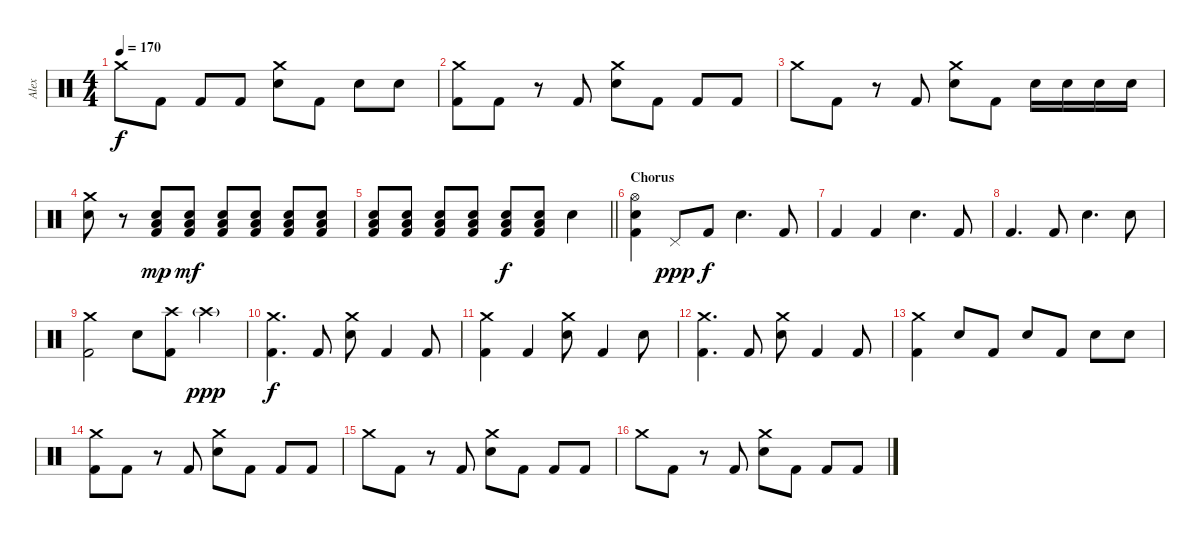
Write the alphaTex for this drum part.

\track ("Alex" "Alex") {instrument percussion}
\staff {score}
\articulation defaults
\ts (4 4)
\tempo 170
\clef neutral
\ks c "Crash medium (hit)".8{dy f} "Kick (hit) 2".8 "Kick (hit) 2".8 "Kick (hit) 2".8
("Crash medium (hit)" "Electric Snare (hit)").8 "Kick (hit) 2".8 "Electric Snare (hit)".8 "Electric Snare (hit)".8 |
("Crash medium (hit)" "Kick (hit) 2").8 "Kick (hit) 2".8 r.8 "Kick (hit) 2".8 ("Crash medium (hit)" "Electric Snare (hit)").8 "Kick (hit) 2".8 "Kick (hit) 2".8 "Kick (hit) 2".8 |
"Crash medium (hit)".8 "Kick (hit) 2".8 r.8 "Kick (hit) 2".8 ("Crash medium (hit)" "Electric Snare (hit)").8 "Kick (hit) 2".8 "Electric Snare (hit)".16 "Electric Snare (hit)".16 "Electric Snare (hit)".16 "Electric Snare (hit)".16 |
("Crash medium (hit)" "Electric Snare (hit)").8 r.8 ("Low Floor Tom (hit)" "Electric Snare (hit)" "Kick (hit) 2").8{dy mp} ("Low Floor Tom (hit)" "Electric Snare (hit)" "Kick (hit) 2").8{dy mf} ("Low Floor Tom (hit)" "Electric Snare (hit)" "Kick (hit) 2").8 ("Low Floor Tom (hit)" "Electric Snare (hit)" "Kick (hit) 2").8 ("Low Floor Tom (hit)" "Electric Snare (hit)" "Kick (hit) 2").8 ("Low Floor Tom (hit)" "Electric Snare (hit)" "Kick (hit) 2").8 |
\barLineRight lightlight
("Low Floor Tom (hit)" "Electric Snare (hit)" "Kick (hit) 2").8 ("Low Floor Tom (hit)" "Electric Snare (hit)" "Kick (hit) 2").8 ("Low Floor Tom (hit)" "Electric Snare (hit)" "Kick (hit) 2").8 ("Low Floor Tom (hit)" "Electric Snare (hit)" "Kick (hit) 2").8 ("Low Floor Tom (hit)" "Electric Snare (hit)" "Kick (hit) 2").8{dy f} ("Low Floor Tom (hit)" "Electric Snare (hit)" "Kick (hit) 2").8 "Electric Snare (hit)".4 |
\section ("" "Chorus")
("Hi-Hat (open)" "Electric Snare (hit)" "Kick (hit) 2").4 "Pedal Hi-Hat (hit)".8{dy ppp} "Kick (hit) 2".8{dy f} "Electric Snare (hit)".4{d} "Kick (hit) 2".8 |
"Kick (hit) 2".4 "Kick (hit) 2".4 "Electric Snare (hit)".4{d} "Kick (hit) 2".8 |
"Kick (hit) 2".4{d} "Kick (hit) 2".8 "Electric Snare (hit)".4{d} "Electric Snare (hit)".8 |
("Crash medium (hit)" "Kick (hit) 2").2 "Electric Snare (hit)".8 ("Crash high (hit)" "Kick (hit) 2").8 "Crash high (hit)"{g}.4{dy ppp} |
("Crash medium (hit)" "Kick (hit) 2").4{d dy f} "Kick (hit) 2".8 ("Crash medium (hit)" "Electric Snare (hit)").8 "Kick (hit) 2".4 "Kick (hit) 2".8 |
("Crash medium (hit)" "Kick (hit) 2").4 "Kick (hit) 2".4 ("Crash medium (hit)" "Electric Snare (hit)").8 "Kick (hit) 2".4 "Electric Snare (hit)".8 |
("Crash medium (hit)" "Kick (hit) 2").4{d} "Kick (hit) 2".8 ("Crash medium (hit)" "Electric Snare (hit)").8 "Kick (hit) 2".4 "Kick (hit) 2".8 |
("Crash medium (hit)" "Kick (hit) 2").4 "Electric Snare (hit)".8 "Kick (hit) 2".8 "Electric Snare (hit)".8 "Kick (hit) 2".8 "Electric Snare (hit)".8 "Electric Snare (hit)".8 |
("Crash medium (hit)" "Kick (hit) 2").8 "Kick (hit) 2".8 r.8 "Kick (hit) 2".8 ("Crash medium (hit)" "Electric Snare (hit)").8 "Kick (hit) 2".8 "Kick (hit) 2".8 "Kick (hit) 2".8 |
"Crash medium (hit)".8 "Kick (hit) 2".8 r.8 "Kick (hit) 2".8 ("Crash medium (hit)" "Electric Snare (hit)").8 "Kick (hit) 2".8 "Kick (hit) 2".8 "Kick (hit) 2".8 |
"Crash medium (hit)".8 "Kick (hit) 2".8 r.8 "Kick (hit) 2".8 ("Crash medium (hit)" "Electric Snare (hit)").8 "Kick (hit) 2".8 "Kick (hit) 2".8 "Kick (hit) 2".8
